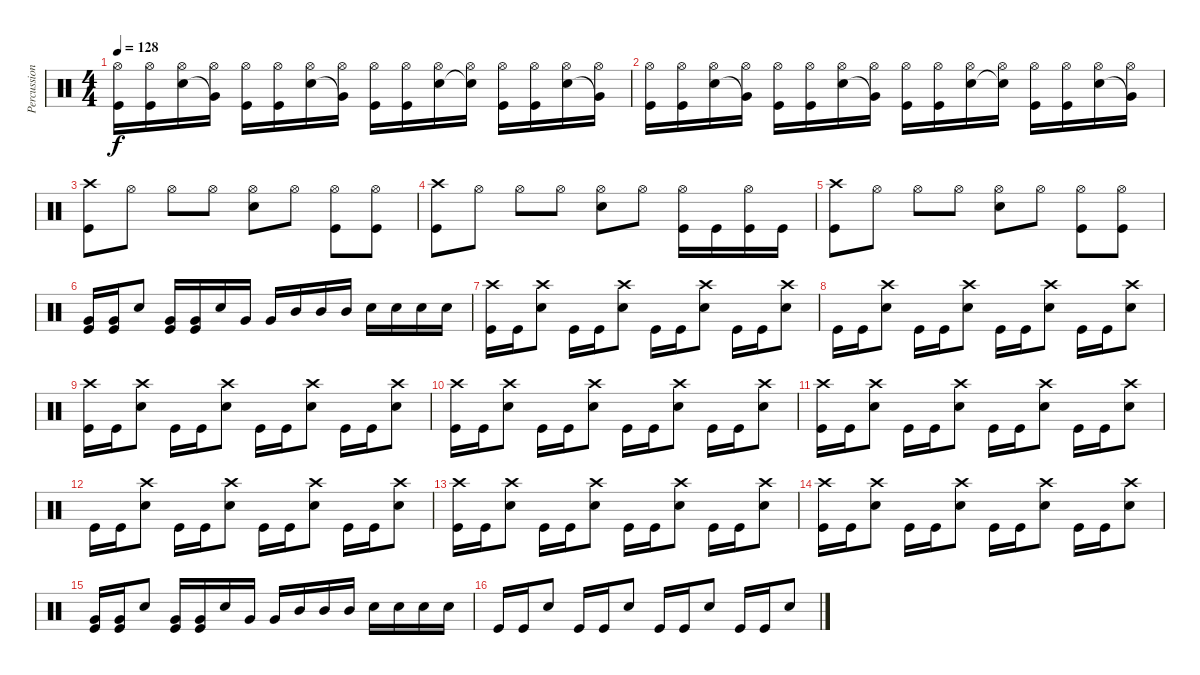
\track ("Percussion" "Percussion") {instrument percussion}
\staff {score}
\articulation defaults
\ts (4 4)
\tempo 128
\clef neutral
\ks c
("Hi-Hat (open)" "Kick (hit)").16{dy f} ("Hi-Hat (open)" "Kick (hit)").16 ("Hi-Hat (open)" "Electric Snare (hit)").16 ("Hi-Hat (open)" "Very Low Tom (hit)"{t}).16 ("Hi-Hat (open)" "Kick (hit)").16 ("Hi-Hat (open)" "Kick (hit)").16 ("Hi-Hat (open)" "Electric Snare (hit)").16 ("Hi-Hat (open)" "Very Low Tom (hit)"{t}).16 ("Hi-Hat (open)" "Kick (hit)").16 ("Hi-Hat (open)" "Kick (hit)").16 ("Hi-Hat (open)" "Electric Snare (hit)").16 ("Hi-Hat (open)" "Electric Snare (hit)"{t}).16 ("Hi-Hat (open)" "Kick (hit)").16 ("Hi-Hat (open)" "Kick (hit)").16 ("Hi-Hat (open)" "Electric Snare (hit)").16 ("Hi-Hat (open)" "Very Low Tom (hit)"{t}).16 |
("Hi-Hat (open)" "Kick (hit)").16 ("Hi-Hat (open)" "Kick (hit)").16 ("Hi-Hat (open)" "Electric Snare (hit)").16 ("Hi-Hat (open)" "Very Low Tom (hit)"{t}).16 ("Hi-Hat (open)" "Kick (hit)").16 ("Hi-Hat (open)" "Kick (hit)").16 ("Hi-Hat (open)" "Electric Snare (hit)").16 ("Hi-Hat (open)" "Very Low Tom (hit)"{t}).16 ("Hi-Hat (open)" "Kick (hit)").16 ("Hi-Hat (open)" "Kick (hit)").16 ("Hi-Hat (open)" "Electric Snare (hit)").16 ("Hi-Hat (open)" "Electric Snare (hit)"{t}).16 ("Hi-Hat (open)" "Kick (hit)").16 ("Hi-Hat (open)" "Kick (hit)").16 ("Hi-Hat (open)" "Electric Snare (hit)").16 ("Hi-Hat (open)" "Very Low Tom (hit)"{t}).16 |
("Crash high (hit)" "Kick (hit)").8 "Hi-Hat (open)".8 "Hi-Hat (open)".8 "Hi-Hat (open)".8 ("Hi-Hat (open)" "Electric Snare (hit)").8 "Hi-Hat (open)".8 ("Hi-Hat (open)" "Kick (hit)").8 ("Hi-Hat (open)" "Kick (hit)").8 |
("Crash high (hit)" "Kick (hit)").8 "Hi-Hat (open)".8 "Hi-Hat (open)".8 "Hi-Hat (open)".8 ("Hi-Hat (open)" "Electric Snare (hit)").8 "Hi-Hat (open)".8 ("Hi-Hat (open)" "Kick (hit)").16 "Kick (hit)".16 ("Hi-Hat (open)" "Kick (hit)").16 "Kick (hit)".16 |
("Crash high (hit)" "Kick (hit)").8 "Hi-Hat (open)".8 "Hi-Hat (open)".8 "Hi-Hat (open)".8 ("Hi-Hat (open)" "Electric Snare (hit)").8 "Hi-Hat (open)".8 ("Hi-Hat (open)" "Kick (hit)").8 ("Hi-Hat (open)" "Kick (hit)").8 |
("Very Low Tom (hit)" "Kick (hit)").16 ("Very Low Tom (hit)" "Kick (hit)").16 "Electric Snare (hit)".8 ("Very Low Tom (hit)" "Kick (hit)").16 ("Very Low Tom (hit)" "Kick (hit)").16 "Electric Snare (hit)".16 "Very Low Tom (hit)".16 "Very Low Tom (hit)".16 "Mid Tom (hit)".16 "Mid Tom (hit)".16 "Mid Tom (hit)".16 "Electric Snare (hit)".16 "Electric Snare (hit)".16 "Electric Snare (hit)".16 "Electric Snare (hit)".16 |
("Crash high (hit)" "Kick (hit)").16 "Kick (hit)".16 ("Crash high (hit)" "Electric Snare (hit)").8 "Kick (hit)".16 "Kick (hit)".16 ("Crash high (hit)" "Electric Snare (hit)").8 "Kick (hit)".16 "Kick (hit)".16 ("Crash high (hit)" "Electric Snare (hit)").8 "Kick (hit)".16 "Kick (hit)".16 ("Crash high (hit)" "Electric Snare (hit)").8 |
"Kick (hit)".16 "Kick (hit)".16 ("Crash high (hit)" "Electric Snare (hit)").8 "Kick (hit)".16 "Kick (hit)".16 ("Crash high (hit)" "Electric Snare (hit)").8 "Kick (hit)".16 "Kick (hit)".16 ("Crash high (hit)" "Electric Snare (hit)").8 "Kick (hit)".16 "Kick (hit)".16 ("Crash high (hit)" "Electric Snare (hit)").8 |
("Crash high (hit)" "Kick (hit)").16 "Kick (hit)".16 ("Crash high (hit)" "Electric Snare (hit)").8 "Kick (hit)".16 "Kick (hit)".16 ("Crash high (hit)" "Electric Snare (hit)").8 "Kick (hit)".16 "Kick (hit)".16 ("Crash high (hit)" "Electric Snare (hit)").8 "Kick (hit)".16 "Kick (hit)".16 ("Crash high (hit)" "Electric Snare (hit)").8 |
("Crash high (hit)" "Kick (hit)").16 "Kick (hit)".16 ("Crash high (hit)" "Electric Snare (hit)").8 "Kick (hit)".16 "Kick (hit)".16 ("Crash high (hit)" "Electric Snare (hit)").8 "Kick (hit)".16 "Kick (hit)".16 ("Crash high (hit)" "Electric Snare (hit)").8 "Kick (hit)".16 "Kick (hit)".16 ("Crash high (hit)" "Electric Snare (hit)").8 |
("Crash high (hit)" "Kick (hit)").16 "Kick (hit)".16 ("Crash high (hit)" "Electric Snare (hit)").8 "Kick (hit)".16 "Kick (hit)".16 ("Crash high (hit)" "Electric Snare (hit)").8 "Kick (hit)".16 "Kick (hit)".16 ("Crash high (hit)" "Electric Snare (hit)").8 "Kick (hit)".16 "Kick (hit)".16 ("Crash high (hit)" "Electric Snare (hit)").8 |
"Kick (hit)".16 "Kick (hit)".16 ("Crash high (hit)" "Electric Snare (hit)").8 "Kick (hit)".16 "Kick (hit)".16 ("Crash high (hit)" "Electric Snare (hit)").8 "Kick (hit)".16 "Kick (hit)".16 ("Crash high (hit)" "Electric Snare (hit)").8 "Kick (hit)".16 "Kick (hit)".16 ("Crash high (hit)" "Electric Snare (hit)").8 |
("Crash high (hit)" "Kick (hit)").16 "Kick (hit)".16 ("Crash high (hit)" "Electric Snare (hit)").8 "Kick (hit)".16 "Kick (hit)".16 ("Crash high (hit)" "Electric Snare (hit)").8 "Kick (hit)".16 "Kick (hit)".16 ("Crash high (hit)" "Electric Snare (hit)").8 "Kick (hit)".16 "Kick (hit)".16 ("Crash high (hit)" "Electric Snare (hit)").8 |
("Crash high (hit)" "Kick (hit)").16 "Kick (hit)".16 ("Crash high (hit)" "Electric Snare (hit)").8 "Kick (hit)".16 "Kick (hit)".16 ("Crash high (hit)" "Electric Snare (hit)").8 "Kick (hit)".16 "Kick (hit)".16 ("Crash high (hit)" "Electric Snare (hit)").8 "Kick (hit)".16 "Kick (hit)".16 ("Crash high (hit)" "Electric Snare (hit)").8 |
("Very Low Tom (hit)" "Kick (hit)").16 ("Very Low Tom (hit)" "Kick (hit)").16 "Electric Snare (hit)".8 ("Very Low Tom (hit)" "Kick (hit)").16 ("Very Low Tom (hit)" "Kick (hit)").16 "Electric Snare (hit)".16 "Very Low Tom (hit)".16 "Very Low Tom (hit)".16 "Mid Tom (hit)".16 "Mid Tom (hit)".16 "Mid Tom (hit)".16 "Electric Snare (hit)".16 "Electric Snare (hit)".16 "Electric Snare (hit)".16 "Electric Snare (hit)".16 |
"Kick (hit)".16 "Kick (hit)".16 "Electric Snare (hit)".8 "Kick (hit)".16 "Kick (hit)".16 "Electric Snare (hit)".8 "Kick (hit)".16 "Kick (hit)".16 "Electric Snare (hit)".8 "Kick (hit)".16 "Kick (hit)".16 "Electric Snare (hit)".8
